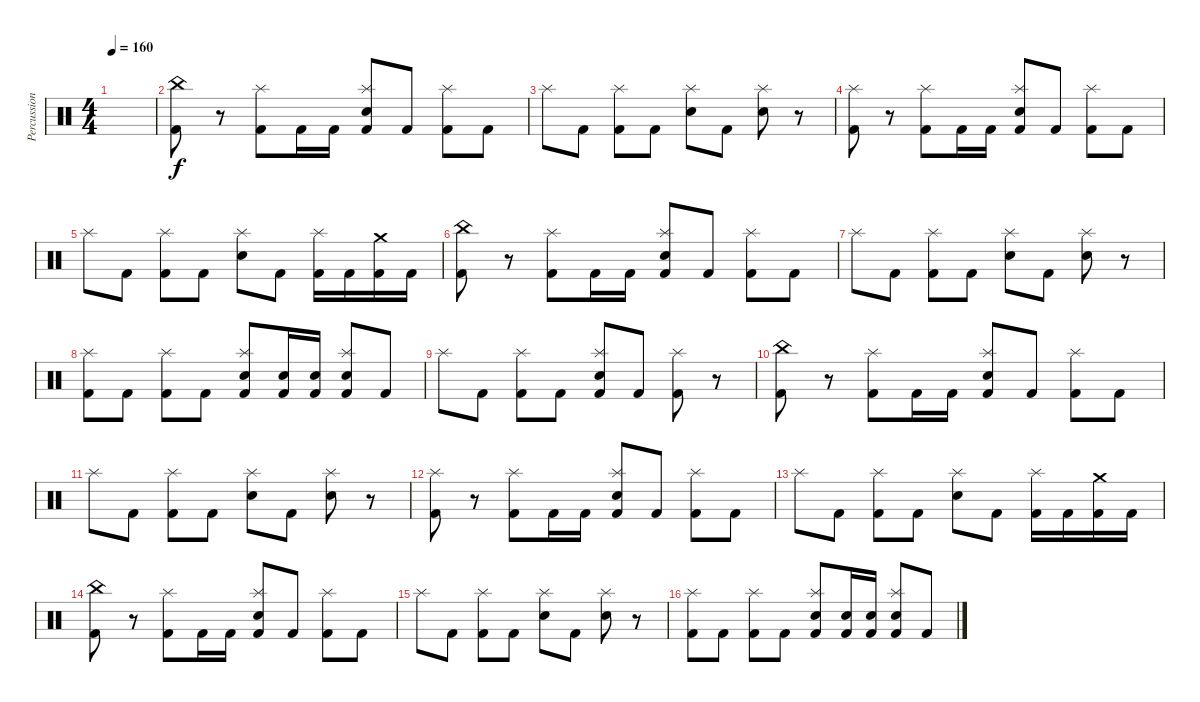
\track ("Percussion" "Percussion") {instrument percussion}
\staff {score}
\articulation defaults
\ts (4 4)
\tempo 160
\clef neutral
\ks c
|
("China (hit)" "Kick (hit) 2").8 r.8 ("Splash (hit)" "Kick (hit) 2").8 "Kick (hit) 2".16 "Kick (hit) 2".16 ("Splash (hit)" "Electric Snare (hit)" "Kick (hit) 2").8 "Kick (hit) 2".8 ("Splash (hit)" "Kick (hit) 2").8 "Kick (hit) 2".8 |
"Splash (hit)".8 "Kick (hit) 2".8 ("Splash (hit)" "Kick (hit) 2").8 "Kick (hit) 2".8 ("Splash (hit)" "Electric Snare (hit)").8 "Kick (hit) 2".8 ("Splash (hit)" "Electric Snare (hit)").8 r.8 |
("Splash (hit)" "Kick (hit) 2").8 r.8 ("Splash (hit)" "Kick (hit) 2").8 "Kick (hit) 2".16 "Kick (hit) 2".16 ("Splash (hit)" "Electric Snare (hit)" "Kick (hit) 2").8 "Kick (hit) 2".8 ("Splash (hit)" "Kick (hit) 2").8 "Kick (hit) 2".8 |
"Splash (hit)".8 "Kick (hit) 2".8 ("Splash (hit)" "Kick (hit) 2").8 "Kick (hit) 2".8 ("Splash (hit)" "Electric Snare (hit)").8 "Kick (hit) 2".8 ("Splash (hit)" "Kick (hit) 2").16 "Kick (hit) 2".16 ("Crash medium (hit)" "Kick (hit) 2").16 "Kick (hit) 2".16 |
("China (hit)" "Kick (hit) 2").8 r.8 ("Splash (hit)" "Kick (hit) 2").8 "Kick (hit) 2".16 "Kick (hit) 2".16 ("Splash (hit)" "Electric Snare (hit)" "Kick (hit) 2").8 "Kick (hit) 2".8 ("Splash (hit)" "Kick (hit) 2").8 "Kick (hit) 2".8 |
"Splash (hit)".8 "Kick (hit) 2".8 ("Splash (hit)" "Kick (hit) 2").8 "Kick (hit) 2".8 ("Splash (hit)" "Electric Snare (hit)").8 "Kick (hit) 2".8 ("Splash (hit)" "Electric Snare (hit)").8 r.8 |
("Splash (hit)" "Kick (hit) 2").8 "Kick (hit) 2".8 ("Splash (hit)" "Kick (hit) 2").8 "Kick (hit) 2".8 ("Splash (hit)" "Electric Snare (hit)" "Kick (hit) 2").8 ("Electric Snare (hit)" "Kick (hit) 2").16 ("Electric Snare (hit)" "Kick (hit) 2").16 ("Splash (hit)" "Electric Snare (hit)" "Kick (hit) 2").8 "Kick (hit) 2".8 |
"Splash (hit)".8 "Kick (hit) 2".8 ("Splash (hit)" "Kick (hit) 2").8 "Kick (hit) 2".8 ("Splash (hit)" "Electric Snare (hit)" "Kick (hit) 2").8 "Kick (hit) 2".8 ("Splash (hit)" "Kick (hit) 2").8 r.8 |
("China (hit)" "Kick (hit) 2").8 r.8 ("Splash (hit)" "Kick (hit) 2").8 "Kick (hit) 2".16 "Kick (hit) 2".16 ("Splash (hit)" "Electric Snare (hit)" "Kick (hit) 2").8 "Kick (hit) 2".8 ("Splash (hit)" "Kick (hit) 2").8 "Kick (hit) 2".8 |
"Splash (hit)".8 "Kick (hit) 2".8 ("Splash (hit)" "Kick (hit) 2").8 "Kick (hit) 2".8 ("Splash (hit)" "Electric Snare (hit)").8 "Kick (hit) 2".8 ("Splash (hit)" "Electric Snare (hit)").8 r.8 |
("Splash (hit)" "Kick (hit) 2").8 r.8 ("Splash (hit)" "Kick (hit) 2").8 "Kick (hit) 2".16 "Kick (hit) 2".16 ("Splash (hit)" "Electric Snare (hit)" "Kick (hit) 2").8 "Kick (hit) 2".8 ("Splash (hit)" "Kick (hit) 2").8 "Kick (hit) 2".8 |
"Splash (hit)".8 "Kick (hit) 2".8 ("Splash (hit)" "Kick (hit) 2").8 "Kick (hit) 2".8 ("Splash (hit)" "Electric Snare (hit)").8 "Kick (hit) 2".8 ("Splash (hit)" "Kick (hit) 2").16 "Kick (hit) 2".16 ("Crash medium (hit)" "Kick (hit) 2").16 "Kick (hit) 2".16 |
("China (hit)" "Kick (hit) 2").8 r.8 ("Splash (hit)" "Kick (hit) 2").8 "Kick (hit) 2".16 "Kick (hit) 2".16 ("Splash (hit)" "Electric Snare (hit)" "Kick (hit) 2").8 "Kick (hit) 2".8 ("Splash (hit)" "Kick (hit) 2").8 "Kick (hit) 2".8 |
"Splash (hit)".8 "Kick (hit) 2".8 ("Splash (hit)" "Kick (hit) 2").8 "Kick (hit) 2".8 ("Splash (hit)" "Electric Snare (hit)").8 "Kick (hit) 2".8 ("Splash (hit)" "Electric Snare (hit)").8 r.8 |
("Splash (hit)" "Kick (hit) 2").8 "Kick (hit) 2".8 ("Splash (hit)" "Kick (hit) 2").8 "Kick (hit) 2".8 ("Splash (hit)" "Electric Snare (hit)" "Kick (hit) 2").8 ("Electric Snare (hit)" "Kick (hit) 2").16 ("Electric Snare (hit)" "Kick (hit) 2").16 ("Splash (hit)" "Electric Snare (hit)" "Kick (hit) 2").8 "Kick (hit) 2".8
